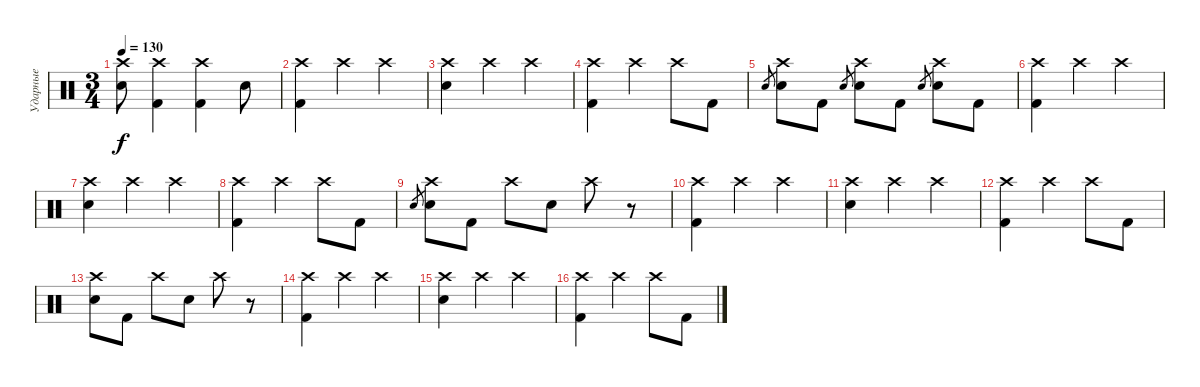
\track ("Ударные" "Ударные") {instrument percussion}
\staff {score}
\articulation defaults
\ts (3 4)
\tempo 130
\clef neutral
\ks c
("Crash high (hit)" "Electric Snare (hit)").8{dy f} ("Crash high (hit)" "Kick (hit) 2").4 ("Crash high (hit)" "Kick (hit) 2").4 "Electric Snare (hit)".8 |
("Crash high (hit)" "Kick (hit) 2").4 "Crash high (hit)".4 "Crash high (hit)".4 |
("Crash high (hit)" "Electric Snare (hit)").4 "Crash high (hit)".4 "Crash high (hit)".4 |
("Crash high (hit)" "Kick (hit) 2").4 "Crash high (hit)".4 "Crash high (hit)".8 "Kick (hit) 2".8 |
"Electric Snare (hit)".8{gr} ("Crash high (hit)" "Electric Snare (hit)").8 "Kick (hit) 2".8 "Electric Snare (hit)".8{gr} ("Crash high (hit)" "Electric Snare (hit)").8 "Kick (hit) 2".8 "Electric Snare (hit)".8{gr} ("Crash high (hit)" "Electric Snare (hit)").8 "Kick (hit) 2".8 |
("Crash high (hit)" "Kick (hit) 2").4 "Crash high (hit)".4 "Crash high (hit)".4 |
("Crash high (hit)" "Electric Snare (hit)").4 "Crash high (hit)".4 "Crash high (hit)".4 |
("Crash high (hit)" "Kick (hit) 2").4 "Crash high (hit)".4 "Crash high (hit)".8 "Kick (hit) 2".8 |
"Electric Snare (hit)".8{gr} ("Crash high (hit)" "Electric Snare (hit)").8 "Kick (hit) 2".8 "Crash high (hit)".8 "Electric Snare (hit)".8 "Crash high (hit)".8 r.8 |
("Crash high (hit)" "Kick (hit) 2").4 "Crash high (hit)".4 "Crash high (hit)".4 |
("Crash high (hit)" "Electric Snare (hit)").4 "Crash high (hit)".4 "Crash high (hit)".4 |
("Crash high (hit)" "Kick (hit) 2").4 "Crash high (hit)".4 "Crash high (hit)".8 "Kick (hit) 2".8 |
("Crash high (hit)" "Electric Snare (hit)").8 "Kick (hit) 2".8 "Crash high (hit)".8 "Electric Snare (hit)".8 "Crash high (hit)".8 r.8 |
("Crash high (hit)" "Kick (hit) 2").4 "Crash high (hit)".4 "Crash high (hit)".4 |
("Crash high (hit)" "Electric Snare (hit)").4 "Crash high (hit)".4 "Crash high (hit)".4 |
("Crash high (hit)" "Kick (hit) 2").4 "Crash high (hit)".4 "Crash high (hit)".8 "Kick (hit) 2".8
